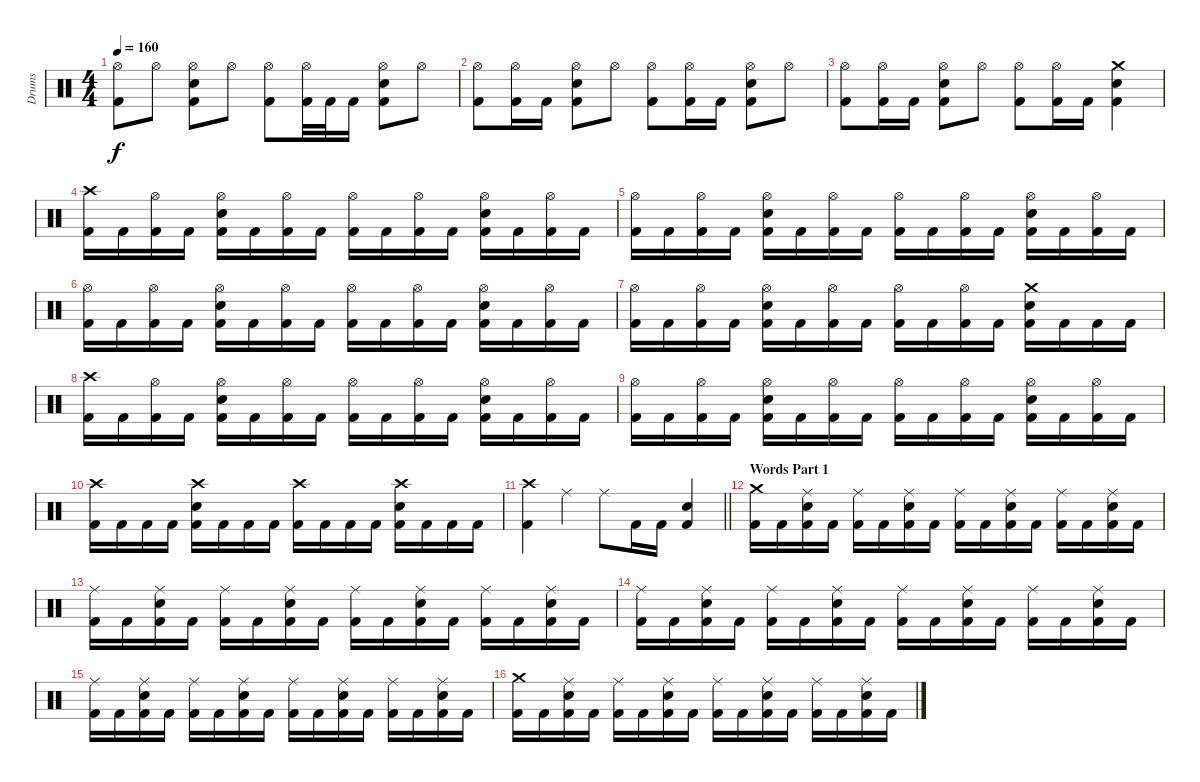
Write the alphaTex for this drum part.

\track ("Drums" "Drums") {instrument percussion}
\staff {score}
\articulation defaults
\ts (4 4)
\tempo 160
\clef neutral
\ks c
("Hi-Hat (open)" "Kick (hit) 2").8{dy f} "Hi-Hat (open)".8 ("Hi-Hat (open)" "Snare (hit) 2" "Kick (hit) 2").8 "Hi-Hat (open)".8 ("Hi-Hat (open)" "Kick (hit) 2").8 ("Hi-Hat (open)" "Kick (hit) 2").32 "Kick (hit) 2".32 "Kick (hit) 2".16 ("Hi-Hat (open)" "Snare (hit) 2" "Kick (hit) 2").8 "Hi-Hat (open)".8 |
("Hi-Hat (open)" "Kick (hit) 2").8 ("Hi-Hat (open)" "Kick (hit) 2").16 "Kick (hit) 2".16 ("Hi-Hat (open)" "Snare (hit) 2" "Kick (hit) 2").8 "Hi-Hat (open)".8 ("Hi-Hat (open)" "Kick (hit) 2").8 ("Hi-Hat (open)" "Kick (hit) 2").16 "Kick (hit) 2".16 ("Hi-Hat (open)" "Snare (hit) 2" "Kick (hit) 2").8 "Hi-Hat (open)".8 |
("Hi-Hat (open)" "Kick (hit) 2").8 ("Hi-Hat (open)" "Kick (hit) 2").16 "Kick (hit) 2".16 ("Hi-Hat (open)" "Snare (hit) 2" "Kick (hit) 2").8 "Hi-Hat (open)".8 ("Hi-Hat (open)" "Kick (hit) 2").8 ("Hi-Hat (open)" "Kick (hit) 2").16 "Kick (hit) 2".16 ("Crash medium (hit)" "Snare (hit) 2" "Kick (hit) 2").4 |
("Crash high (hit)" "Kick (hit) 2").16 "Kick (hit) 2".16 ("Hi-Hat (open)" "Kick (hit) 2").16 "Kick (hit) 2".16 ("Hi-Hat (open)" "Snare (hit) 2" "Kick (hit) 2").16 "Kick (hit) 2".16 ("Hi-Hat (open)" "Kick (hit) 2").16 "Kick (hit) 2".16 ("Hi-Hat (open)" "Kick (hit) 2").16 "Kick (hit) 2".16 ("Hi-Hat (open)" "Kick (hit) 2").16 "Kick (hit) 2".16 ("Hi-Hat (open)" "Snare (hit) 2" "Kick (hit) 2").16 "Kick (hit) 2".16 ("Hi-Hat (open)" "Kick (hit) 2").16 "Kick (hit) 2".16 |
("Hi-Hat (open)" "Kick (hit) 2").16 "Kick (hit) 2".16 ("Hi-Hat (open)" "Kick (hit) 2").16 "Kick (hit) 2".16 ("Hi-Hat (open)" "Snare (hit) 2" "Kick (hit) 2").16 "Kick (hit) 2".16 ("Hi-Hat (open)" "Kick (hit) 2").16 "Kick (hit) 2".16 ("Hi-Hat (open)" "Kick (hit) 2").16 "Kick (hit) 2".16 ("Hi-Hat (open)" "Kick (hit) 2").16 "Kick (hit) 2".16 ("Hi-Hat (open)" "Snare (hit) 2" "Kick (hit) 2").16 "Kick (hit) 2".16 ("Hi-Hat (open)" "Kick (hit) 2").16 "Kick (hit) 2".16 |
("Hi-Hat (open)" "Kick (hit) 2").16 "Kick (hit) 2".16 ("Hi-Hat (open)" "Kick (hit) 2").16 "Kick (hit) 2".16 ("Hi-Hat (open)" "Snare (hit) 2" "Kick (hit) 2").16 "Kick (hit) 2".16 ("Hi-Hat (open)" "Kick (hit) 2").16 "Kick (hit) 2".16 ("Hi-Hat (open)" "Kick (hit) 2").16 "Kick (hit) 2".16 ("Hi-Hat (open)" "Kick (hit) 2").16 "Kick (hit) 2".16 ("Hi-Hat (open)" "Snare (hit) 2" "Kick (hit) 2").16 "Kick (hit) 2".16 ("Hi-Hat (open)" "Kick (hit) 2").16 "Kick (hit) 2".16 |
("Hi-Hat (open)" "Kick (hit) 2").16 "Kick (hit) 2".16 ("Hi-Hat (open)" "Kick (hit) 2").16 "Kick (hit) 2".16 ("Hi-Hat (open)" "Snare (hit) 2" "Kick (hit) 2").16 "Kick (hit) 2".16 ("Hi-Hat (open)" "Kick (hit) 2").16 "Kick (hit) 2".16 ("Hi-Hat (open)" "Kick (hit) 2").16 "Kick (hit) 2".16 ("Hi-Hat (open)" "Kick (hit) 2").16 "Kick (hit) 2".16 ("Crash medium (hit)" "Snare (hit) 2" "Kick (hit) 2").16 "Kick (hit) 2".16 "Kick (hit) 2".16 "Kick (hit) 2".16 |
("Crash high (hit)" "Kick (hit) 2").16 "Kick (hit) 2".16 ("Hi-Hat (open)" "Kick (hit) 2").16 "Kick (hit) 2".16 ("Hi-Hat (open)" "Snare (hit) 2" "Kick (hit) 2").16 "Kick (hit) 2".16 ("Hi-Hat (open)" "Kick (hit) 2").16 "Kick (hit) 2".16 ("Hi-Hat (open)" "Kick (hit) 2").16 "Kick (hit) 2".16 ("Hi-Hat (open)" "Kick (hit) 2").16 "Kick (hit) 2".16 ("Hi-Hat (open)" "Snare (hit) 2" "Kick (hit) 2").16 "Kick (hit) 2".16 ("Hi-Hat (open)" "Kick (hit) 2").16 "Kick (hit) 2".16 |
("Hi-Hat (open)" "Kick (hit) 2").16 "Kick (hit) 2".16 ("Hi-Hat (open)" "Kick (hit) 2").16 "Kick (hit) 2".16 ("Hi-Hat (open)" "Snare (hit) 2" "Kick (hit) 2").16 "Kick (hit) 2".16 ("Hi-Hat (open)" "Kick (hit) 2").16 "Kick (hit) 2".16 ("Hi-Hat (open)" "Kick (hit) 2").16 "Kick (hit) 2".16 ("Hi-Hat (open)" "Kick (hit) 2").16 "Kick (hit) 2".16 ("Hi-Hat (open)" "Snare (hit) 2" "Kick (hit) 2").16 "Kick (hit) 2".16 ("Hi-Hat (open)" "Kick (hit) 2").16 "Kick (hit) 2".16 |
("Crash high (hit)" "Kick (hit) 2").16 "Kick (hit) 2".16 "Kick (hit) 2".16 "Kick (hit) 2".16 ("Crash high (hit)" "Snare (hit) 2" "Kick (hit) 2").16 "Kick (hit) 2".16 "Kick (hit) 2".16 "Kick (hit) 2".16 ("Crash high (hit)" "Kick (hit) 2").16 "Kick (hit) 2".16 "Kick (hit) 2".16 "Kick (hit) 2".16 ("Crash high (hit)" "Snare (hit) 2" "Kick (hit) 2").16 "Kick (hit) 2".16 "Kick (hit) 2".16 "Kick (hit) 2".16 |
\barLineRight lightlight
("Crash high (hit)" "Kick (hit) 2").4 "Ride (middle)".4 "Ride (middle)".8 "Kick (hit) 2".16 "Kick (hit) 2".16 ("Snare (hit) 2" "Kick (hit) 2").4 |
\section ("" "Words Part 1")
("Crash medium (hit)" "Kick (hit) 2").16 "Kick (hit) 2".16 ("Ride (middle)" "Snare (hit) 2" "Kick (hit) 2").16 "Kick (hit) 2".16 ("Ride (middle)" "Kick (hit) 2").16 "Kick (hit) 2".16 ("Ride (middle)" "Snare (hit) 2" "Kick (hit) 2").16 "Kick (hit) 2".16 ("Ride (middle)" "Kick (hit) 2").16 "Kick (hit) 2".16 ("Ride (middle)" "Snare (hit) 2" "Kick (hit) 2").16 "Kick (hit) 2".16 ("Ride (middle)" "Kick (hit) 2").16 "Kick (hit) 2".16 ("Ride (middle)" "Snare (hit) 2" "Kick (hit) 2").16 "Kick (hit) 2".16 |
("Ride (middle)" "Kick (hit) 2").16 "Kick (hit) 2".16 ("Ride (middle)" "Snare (hit) 2" "Kick (hit) 2").16 "Kick (hit) 2".16 ("Ride (middle)" "Kick (hit) 2").16 "Kick (hit) 2".16 ("Ride (middle)" "Snare (hit) 2" "Kick (hit) 2").16 "Kick (hit) 2".16 ("Ride (middle)" "Kick (hit) 2").16 "Kick (hit) 2".16 ("Ride (middle)" "Snare (hit) 2" "Kick (hit) 2").16 "Kick (hit) 2".16 ("Ride (middle)" "Kick (hit) 2").16 "Kick (hit) 2".16 ("Ride (middle)" "Snare (hit) 2" "Kick (hit) 2").16 "Kick (hit) 2".16 |
("Ride (middle)" "Kick (hit) 2").16 "Kick (hit) 2".16 ("Ride (middle)" "Snare (hit) 2" "Kick (hit) 2").16 "Kick (hit) 2".16 ("Ride (middle)" "Kick (hit) 2").16 "Kick (hit) 2".16 ("Ride (middle)" "Snare (hit) 2" "Kick (hit) 2").16 "Kick (hit) 2".16 ("Ride (middle)" "Kick (hit) 2").16 "Kick (hit) 2".16 ("Ride (middle)" "Snare (hit) 2" "Kick (hit) 2").16 "Kick (hit) 2".16 ("Ride (middle)" "Kick (hit) 2").16 "Kick (hit) 2".16 ("Ride (middle)" "Snare (hit) 2" "Kick (hit) 2").16 "Kick (hit) 2".16 |
("Ride (middle)" "Kick (hit) 2").16 "Kick (hit) 2".16 ("Ride (middle)" "Snare (hit) 2" "Kick (hit) 2").16 "Kick (hit) 2".16 ("Ride (middle)" "Kick (hit) 2").16 "Kick (hit) 2".16 ("Ride (middle)" "Snare (hit) 2" "Kick (hit) 2").16 "Kick (hit) 2".16 ("Ride (middle)" "Kick (hit) 2").16 "Kick (hit) 2".16 ("Ride (middle)" "Snare (hit) 2" "Kick (hit) 2").16 "Kick (hit) 2".16 ("Ride (middle)" "Kick (hit) 2").16 "Kick (hit) 2".16 ("Ride (middle)" "Snare (hit) 2" "Kick (hit) 2").16 "Kick (hit) 2".16 |
("Crash medium (hit)" "Kick (hit) 2").16 "Kick (hit) 2".16 ("Ride (middle)" "Snare (hit) 2" "Kick (hit) 2").16 "Kick (hit) 2".16 ("Ride (middle)" "Kick (hit) 2").16 "Kick (hit) 2".16 ("Ride (middle)" "Snare (hit) 2" "Kick (hit) 2").16 "Kick (hit) 2".16 ("Ride (middle)" "Kick (hit) 2").16 "Kick (hit) 2".16 ("Ride (middle)" "Snare (hit) 2" "Kick (hit) 2").16 "Kick (hit) 2".16 ("Ride (middle)" "Kick (hit) 2").16 "Kick (hit) 2".16 ("Ride (middle)" "Snare (hit) 2" "Kick (hit) 2").16 "Kick (hit) 2".16
